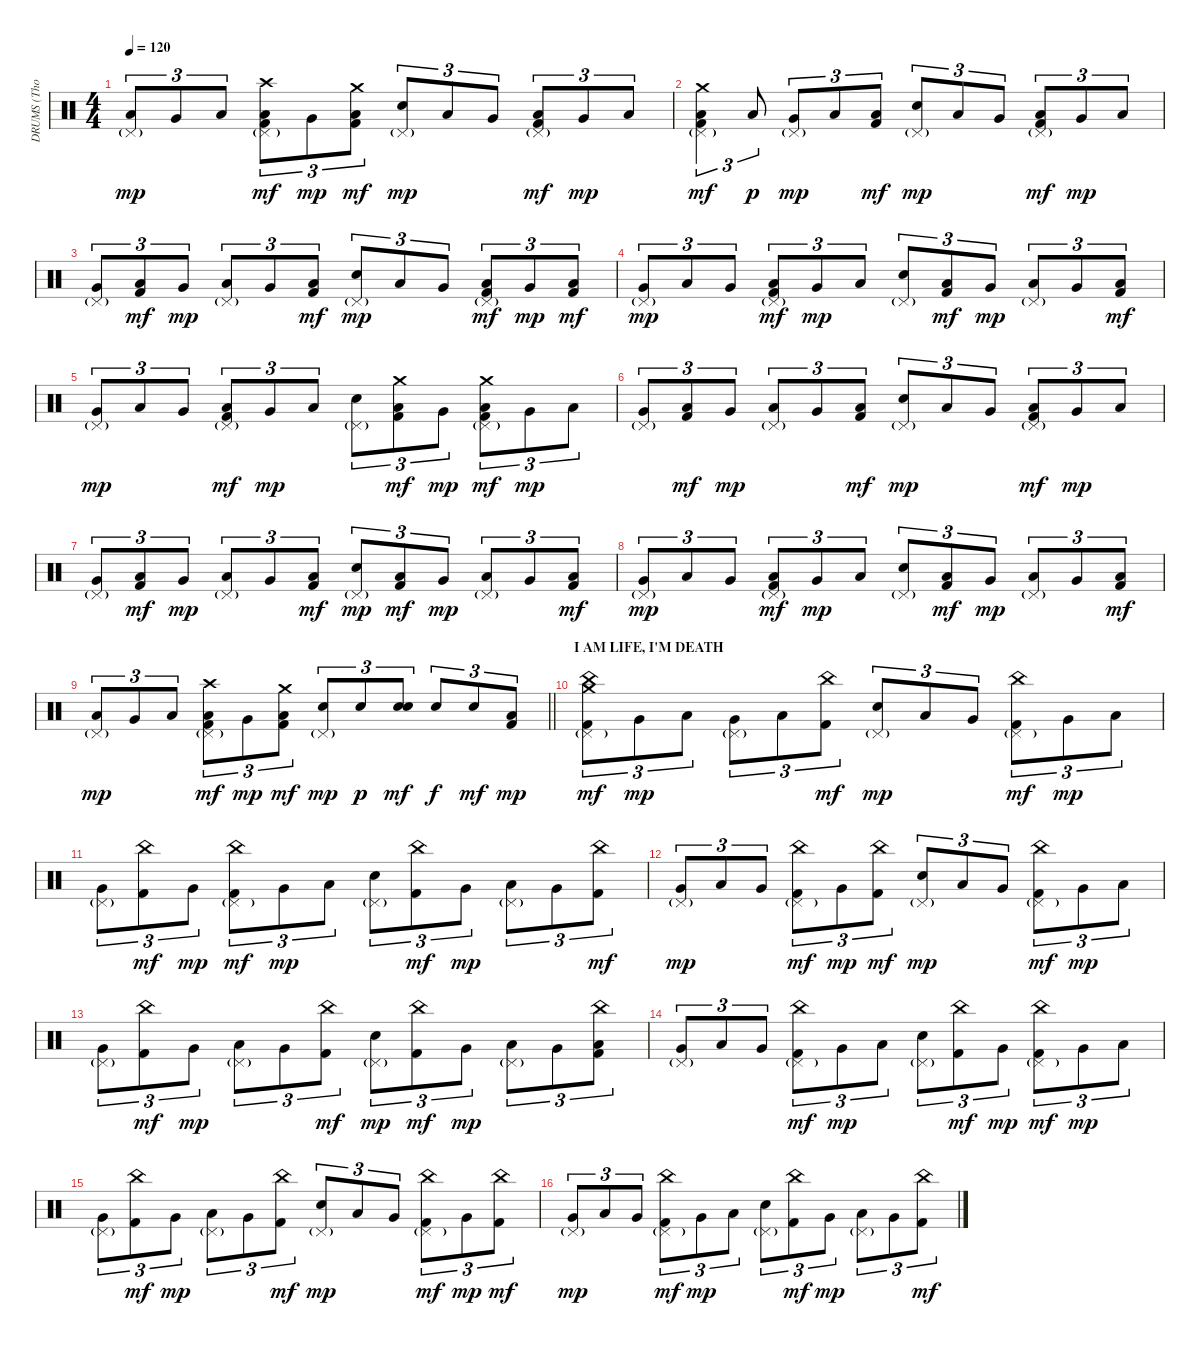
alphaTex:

\track ("DRUMS (Thomas Haake)" "DRUMS (Tho") {instrument percussion}
\staff {score}
\articulation defaults
\ts (4 4)
\tempo 120
\clef neutral
\ks c
("Pedal Hi-Hat (hit)"{g} "Low Floor Tom (hit)").8{tu (3 2) dy mp} "Very Low Tom (hit)".8{tu (3 2)} "Low Floor Tom (hit)".8{tu (3 2)} ("Pedal Hi-Hat (hit)"{g} "Crash high (hit)" "Low Floor Tom (hit)" "Kick (hit) 2").8{tu (3 2) dy mf} "Very Low Tom (hit)".8{tu (3 2) dy mp} ("Crash medium (hit)" "Low Floor Tom (hit)" "Kick (hit) 2").8{tu (3 2) dy mf} ("Pedal Hi-Hat (hit)"{g} "Electric Snare (hit)").8{tu (3 2) dy mp} "Low Floor Tom (hit)".8{tu (3 2)} "Very Low Tom (hit)".8{tu (3 2)} ("Pedal Hi-Hat (hit)"{g} "Low Floor Tom (hit)" "Kick (hit) 2").8{tu (3 2) dy mf} "Very Low Tom (hit)".8{tu (3 2) dy mp} "Low Floor Tom (hit)".8{tu (3 2)} |
("Pedal Hi-Hat (hit)"{g} "Crash medium (hit)" "Low Floor Tom (hit)" "Kick (hit) 2").4{tu (3 2) dy mf} "Low Floor Tom (hit)".8{tu (3 2) dy p} ("Pedal Hi-Hat (hit)"{g} "Very Low Tom (hit)").8{tu (3 2) dy mp} "Low Floor Tom (hit)".8{tu (3 2)} ("Low Floor Tom (hit)" "Kick (hit) 2").8{tu (3 2) dy mf} ("Pedal Hi-Hat (hit)"{g} "Electric Snare (hit)").8{tu (3 2) dy mp} "Low Floor Tom (hit)".8{tu (3 2)} "Very Low Tom (hit)".8{tu (3 2)} ("Pedal Hi-Hat (hit)"{g} "Low Floor Tom (hit)" "Kick (hit) 2").8{tu (3 2) dy mf} "Very Low Tom (hit)".8{tu (3 2) dy mp} "Low Floor Tom (hit)".8{tu (3 2)} |
("Pedal Hi-Hat (hit)"{g} "Very Low Tom (hit)").8{tu (3 2)} ("Low Floor Tom (hit)" "Kick (hit) 2").8{tu (3 2) dy mf} "Very Low Tom (hit)".8{tu (3 2) dy mp} ("Pedal Hi-Hat (hit)"{g} "Low Floor Tom (hit)").8{tu (3 2)} "Very Low Tom (hit)".8{tu (3 2)} ("Low Floor Tom (hit)" "Kick (hit) 2").8{tu (3 2) dy mf} ("Pedal Hi-Hat (hit)"{g} "Electric Snare (hit)").8{tu (3 2) dy mp} "Low Floor Tom (hit)".8{tu (3 2)} "Very Low Tom (hit)".8{tu (3 2)} ("Pedal Hi-Hat (hit)"{g} "Low Floor Tom (hit)" "Kick (hit) 2").8{tu (3 2) dy mf} "Very Low Tom (hit)".8{tu (3 2) dy mp} ("Low Floor Tom (hit)" "Kick (hit) 2").8{tu (3 2) dy mf} |
("Pedal Hi-Hat (hit)"{g} "Very Low Tom (hit)").8{tu (3 2) dy mp} "Low Floor Tom (hit)".8{tu (3 2)} "Very Low Tom (hit)".8{tu (3 2)} ("Pedal Hi-Hat (hit)"{g} "Low Floor Tom (hit)" "Kick (hit) 2").8{tu (3 2) dy mf} "Very Low Tom (hit)".8{tu (3 2) dy mp} "Low Floor Tom (hit)".8{tu (3 2)} ("Pedal Hi-Hat (hit)"{g} "Electric Snare (hit)").8{tu (3 2)} ("Low Floor Tom (hit)" "Kick (hit) 2").8{tu (3 2) dy mf} "Very Low Tom (hit)".8{tu (3 2) dy mp} ("Pedal Hi-Hat (hit)"{g} "Low Floor Tom (hit)").8{tu (3 2)} "Very Low Tom (hit)".8{tu (3 2)} ("Low Floor Tom (hit)" "Kick (hit) 2").8{tu (3 2) dy mf} |
("Pedal Hi-Hat (hit)"{g} "Very Low Tom (hit)").8{tu (3 2) dy mp} "Low Floor Tom (hit)".8{tu (3 2)} "Very Low Tom (hit)".8{tu (3 2)} ("Pedal Hi-Hat (hit)"{g} "Low Floor Tom (hit)" "Kick (hit) 2").8{tu (3 2) dy mf} "Very Low Tom (hit)".8{tu (3 2) dy mp} "Low Floor Tom (hit)".8{tu (3 2)} ("Pedal Hi-Hat (hit)"{g} "Electric Snare (hit)").8{tu (3 2)} ("Crash medium (hit)" "Low Floor Tom (hit)" "Kick (hit) 2").8{tu (3 2) dy mf} "Very Low Tom (hit)".8{tu (3 2) dy mp} ("Pedal Hi-Hat (hit)"{g} "Crash medium (hit)" "Low Floor Tom (hit)" "Kick (hit) 2").8{tu (3 2) dy mf} "Very Low Tom (hit)".8{tu (3 2) dy mp} "Low Floor Tom (hit)".8{tu (3 2)} |
("Pedal Hi-Hat (hit)"{g} "Very Low Tom (hit)").8{tu (3 2)} ("Low Floor Tom (hit)" "Kick (hit) 2").8{tu (3 2) dy mf} "Very Low Tom (hit)".8{tu (3 2) dy mp} ("Pedal Hi-Hat (hit)"{g} "Low Floor Tom (hit)").8{tu (3 2)} "Very Low Tom (hit)".8{tu (3 2)} ("Low Floor Tom (hit)" "Kick (hit) 2").8{tu (3 2) dy mf} ("Pedal Hi-Hat (hit)"{g} "Electric Snare (hit)").8{tu (3 2) dy mp} "Low Floor Tom (hit)".8{tu (3 2)} "Very Low Tom (hit)".8{tu (3 2)} ("Pedal Hi-Hat (hit)"{g} "Low Floor Tom (hit)" "Kick (hit) 2").8{tu (3 2) dy mf} "Very Low Tom (hit)".8{tu (3 2) dy mp} "Low Floor Tom (hit)".8{tu (3 2)} |
("Pedal Hi-Hat (hit)"{g} "Very Low Tom (hit)").8{tu (3 2)} ("Low Floor Tom (hit)" "Kick (hit) 2").8{tu (3 2) dy mf} "Very Low Tom (hit)".8{tu (3 2) dy mp} ("Pedal Hi-Hat (hit)"{g} "Low Floor Tom (hit)").8{tu (3 2)} "Very Low Tom (hit)".8{tu (3 2)} ("Low Floor Tom (hit)" "Kick (hit) 2").8{tu (3 2) dy mf} ("Pedal Hi-Hat (hit)"{g} "Electric Snare (hit)").8{tu (3 2) dy mp} ("Low Floor Tom (hit)" "Kick (hit) 2").8{tu (3 2) dy mf} "Very Low Tom (hit)".8{tu (3 2) dy mp} ("Pedal Hi-Hat (hit)"{g} "Low Floor Tom (hit)").8{tu (3 2)} "Very Low Tom (hit)".8{tu (3 2)} ("Low Floor Tom (hit)" "Kick (hit) 2").8{tu (3 2) dy mf} |
("Pedal Hi-Hat (hit)"{g} "Very Low Tom (hit)").8{tu (3 2) dy mp} "Low Floor Tom (hit)".8{tu (3 2)} "Very Low Tom (hit)".8{tu (3 2)} ("Pedal Hi-Hat (hit)"{g} "Low Floor Tom (hit)" "Kick (hit) 2").8{tu (3 2) dy mf} "Very Low Tom (hit)".8{tu (3 2) dy mp} "Low Floor Tom (hit)".8{tu (3 2)} ("Pedal Hi-Hat (hit)"{g} "Electric Snare (hit)").8{tu (3 2)} ("Low Floor Tom (hit)" "Kick (hit) 2").8{tu (3 2) dy mf} "Very Low Tom (hit)".8{tu (3 2) dy mp} ("Pedal Hi-Hat (hit)"{g} "Low Floor Tom (hit)").8{tu (3 2)} "Very Low Tom (hit)".8{tu (3 2)} ("Low Floor Tom (hit)" "Kick (hit) 2").8{tu (3 2) dy mf} |
\barLineRight lightlight
("Pedal Hi-Hat (hit)"{g} "Low Floor Tom (hit)").8{tu (3 2) dy mp} "Very Low Tom (hit)".8{tu (3 2)} "Low Floor Tom (hit)".8{tu (3 2)} ("Pedal Hi-Hat (hit)"{g} "Crash high (hit)" "Low Floor Tom (hit)" "Kick (hit) 2").8{tu (3 2) dy mf} "Very Low Tom (hit)".8{tu (3 2) dy mp} ("Crash medium (hit)" "Low Floor Tom (hit)" "Kick (hit) 2").8{tu (3 2) dy mf} ("Pedal Hi-Hat (hit)"{g} "Electric Snare (hit)").8{tu (3 2) dy mp} "Electric Snare (hit)".8{tu (3 2) dy p} ("Electric Snare (hit)" "Electric Snare (hit)").8{tu (3 2) bd 120 dy mf} "Electric Snare (hit)".8{tu (3 2) dy f} "Electric Snare (hit)".8{tu (3 2) dy mf} ("Low Floor Tom (hit)" "Kick (hit) 2").8{tu (3 2) dy mp} |
\section ("" "I AM LIFE, I'M DEATH")
("Pedal Hi-Hat (hit)"{g} "Crash medium (hit)" "China (hit)" "Kick (hit) 2").8{tu (3 2) dy mf} "Very Low Tom (hit)".8{tu (3 2) dy mp} "Low Floor Tom (hit)".8{tu (3 2)} ("Pedal Hi-Hat (hit)"{g} "Very Low Tom (hit)").8{tu (3 2)} "Low Floor Tom (hit)".8{tu (3 2)} ("China (hit)" "Kick (hit) 2").8{tu (3 2) dy mf} ("Pedal Hi-Hat (hit)"{g} "Electric Snare (hit)").8{tu (3 2) dy mp} "Low Floor Tom (hit)".8{tu (3 2)} "Very Low Tom (hit)".8{tu (3 2)} ("Pedal Hi-Hat (hit)"{g} "China (hit)" "Kick (hit) 2").8{tu (3 2) dy mf} "Very Low Tom (hit)".8{tu (3 2) dy mp} "Low Floor Tom (hit)".8{tu (3 2)} |
("Pedal Hi-Hat (hit)"{g} "Very Low Tom (hit)").8{tu (3 2)} ("China (hit)" "Kick (hit) 2").8{tu (3 2) dy mf} "Very Low Tom (hit)".8{tu (3 2) dy mp} ("Pedal Hi-Hat (hit)"{g} "China (hit)" "Kick (hit) 2").8{tu (3 2) dy mf} "Very Low Tom (hit)".8{tu (3 2) dy mp} "Low Floor Tom (hit)".8{tu (3 2)} ("Pedal Hi-Hat (hit)"{g} "Electric Snare (hit)").8{tu (3 2)} ("China (hit)" "Kick (hit) 2").8{tu (3 2) dy mf} "Very Low Tom (hit)".8{tu (3 2) dy mp} ("Pedal Hi-Hat (hit)"{g} "Low Floor Tom (hit)").8{tu (3 2)} "Very Low Tom (hit)".8{tu (3 2)} ("China (hit)" "Kick (hit) 2").8{tu (3 2) dy mf} |
("Pedal Hi-Hat (hit)"{g} "Very Low Tom (hit)").8{tu (3 2) dy mp} "Low Floor Tom (hit)".8{tu (3 2)} "Very Low Tom (hit)".8{tu (3 2)} ("Pedal Hi-Hat (hit)"{g} "China (hit)" "Kick (hit) 2").8{tu (3 2) dy mf} "Very Low Tom (hit)".8{tu (3 2) dy mp} ("China (hit)" "Kick (hit) 2").8{tu (3 2) dy mf} ("Pedal Hi-Hat (hit)"{g} "Electric Snare (hit)").8{tu (3 2) dy mp} "Low Floor Tom (hit)".8{tu (3 2)} "Very Low Tom (hit)".8{tu (3 2)} ("Pedal Hi-Hat (hit)"{g} "China (hit)" "Kick (hit) 2").8{tu (3 2) dy mf} "Very Low Tom (hit)".8{tu (3 2) dy mp} "Low Floor Tom (hit)".8{tu (3 2)} |
("Pedal Hi-Hat (hit)"{g} "Very Low Tom (hit)").8{tu (3 2)} ("China (hit)" "Kick (hit) 2").8{tu (3 2) dy mf} "Very Low Tom (hit)".8{tu (3 2) dy mp} ("Pedal Hi-Hat (hit)"{g} "Low Floor Tom (hit)").8{tu (3 2)} "Very Low Tom (hit)".8{tu (3 2)} ("China (hit)" "Kick (hit) 2").8{tu (3 2) dy mf} ("Pedal Hi-Hat (hit)"{g} "Electric Snare (hit)").8{tu (3 2) dy mp} ("China (hit)" "Kick (hit) 2").8{tu (3 2) dy mf} "Very Low Tom (hit)".8{tu (3 2) dy mp} ("Pedal Hi-Hat (hit)"{g} "Low Floor Tom (hit)").8{tu (3 2)} "Very Low Tom (hit)".8{tu (3 2)} ("China (hit)" "Low Floor Tom (hit)" "Kick (hit) 2").8{tu (3 2)} |
("Pedal Hi-Hat (hit)"{g} "Very Low Tom (hit)").8{tu (3 2)} "Low Floor Tom (hit)".8{tu (3 2)} "Very Low Tom (hit)".8{tu (3 2)} ("Pedal Hi-Hat (hit)"{g} "China (hit)" "Kick (hit) 2").8{tu (3 2) dy mf} "Very Low Tom (hit)".8{tu (3 2) dy mp} "Low Floor Tom (hit)".8{tu (3 2)} ("Pedal Hi-Hat (hit)"{g} "Electric Snare (hit)").8{tu (3 2)} ("China (hit)" "Kick (hit) 2").8{tu (3 2) dy mf} "Very Low Tom (hit)".8{tu (3 2) dy mp} ("Pedal Hi-Hat (hit)"{g} "China (hit)" "Kick (hit) 2").8{tu (3 2) dy mf} "Very Low Tom (hit)".8{tu (3 2) dy mp} "Low Floor Tom (hit)".8{tu (3 2)} |
("Pedal Hi-Hat (hit)"{g} "Very Low Tom (hit)").8{tu (3 2)} ("China (hit)" "Kick (hit) 2").8{tu (3 2) dy mf} "Very Low Tom (hit)".8{tu (3 2) dy mp} ("Pedal Hi-Hat (hit)"{g} "Low Floor Tom (hit)").8{tu (3 2)} "Very Low Tom (hit)".8{tu (3 2)} ("China (hit)" "Kick (hit) 2").8{tu (3 2) dy mf} ("Pedal Hi-Hat (hit)"{g} "Electric Snare (hit)").8{tu (3 2) dy mp} "Low Floor Tom (hit)".8{tu (3 2)} "Very Low Tom (hit)".8{tu (3 2)} ("Pedal Hi-Hat (hit)"{g} "China (hit)" "Kick (hit) 2").8{tu (3 2) dy mf} "Very Low Tom (hit)".8{tu (3 2) dy mp} ("China (hit)" "Kick (hit) 2").8{tu (3 2) dy mf} |
("Pedal Hi-Hat (hit)"{g} "Very Low Tom (hit)").8{tu (3 2) dy mp} "Low Floor Tom (hit)".8{tu (3 2)} "Very Low Tom (hit)".8{tu (3 2)} ("Pedal Hi-Hat (hit)"{g} "China (hit)" "Kick (hit) 2").8{tu (3 2) dy mf} "Very Low Tom (hit)".8{tu (3 2) dy mp} "Low Floor Tom (hit)".8{tu (3 2)} ("Pedal Hi-Hat (hit)"{g} "Electric Snare (hit)").8{tu (3 2)} ("China (hit)" "Kick (hit) 2").8{tu (3 2) dy mf} "Very Low Tom (hit)".8{tu (3 2) dy mp} ("Pedal Hi-Hat (hit)"{g} "Low Floor Tom (hit)").8{tu (3 2)} "Very Low Tom (hit)".8{tu (3 2)} ("China (hit)" "Kick (hit) 2").8{tu (3 2) dy mf}
